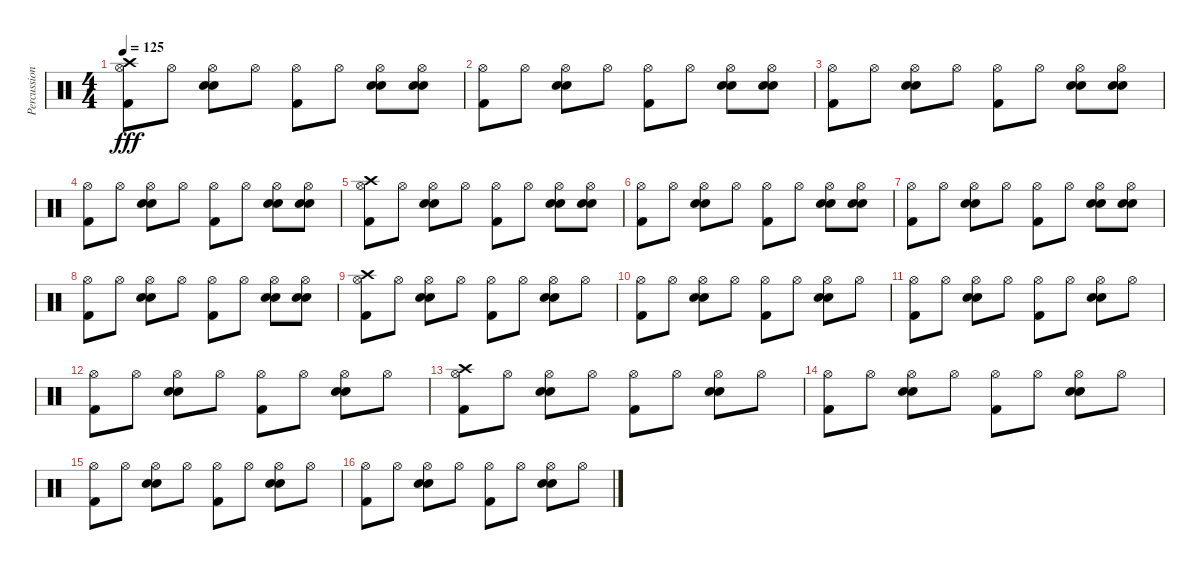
\track ("Percussion" "Percussion") {instrument percussion}
\staff {score}
\articulation defaults
\ts (4 4)
\tempo 125
\clef neutral
\ks c
("Crash high (hit)" "Hi-Hat (open)" "Kick (hit) 2").8{dy fff} "Hi-Hat (open)".8 ("Electric Snare (hit)" "Snare (hit) 2" "Hi-Hat (open)").8 "Hi-Hat (open)".8 ("Hi-Hat (open)" "Kick (hit) 2").8 "Hi-Hat (open)".8 ("Electric Snare (hit)" "Snare (hit) 2" "Hi-Hat (open)").8 ("Electric Snare (hit)" "Snare (hit) 2" "Hi-Hat (open)").8 |
("Hi-Hat (open)" "Kick (hit) 2").8 "Hi-Hat (open)".8 ("Electric Snare (hit)" "Snare (hit) 2" "Hi-Hat (open)").8 "Hi-Hat (open)".8 ("Hi-Hat (open)" "Kick (hit) 2").8 "Hi-Hat (open)".8 ("Electric Snare (hit)" "Snare (hit) 2" "Hi-Hat (open)").8 ("Electric Snare (hit)" "Snare (hit) 2" "Hi-Hat (open)").8 |
("Hi-Hat (open)" "Kick (hit) 2").8 "Hi-Hat (open)".8 ("Electric Snare (hit)" "Snare (hit) 2" "Hi-Hat (open)").8 "Hi-Hat (open)".8 ("Hi-Hat (open)" "Kick (hit) 2").8 "Hi-Hat (open)".8 ("Electric Snare (hit)" "Snare (hit) 2" "Hi-Hat (open)").8 ("Electric Snare (hit)" "Snare (hit) 2" "Hi-Hat (open)").8 |
("Hi-Hat (open)" "Kick (hit) 2").8 "Hi-Hat (open)".8 ("Electric Snare (hit)" "Snare (hit) 2" "Hi-Hat (open)").8 "Hi-Hat (open)".8 ("Hi-Hat (open)" "Kick (hit) 2").8 "Hi-Hat (open)".8 ("Electric Snare (hit)" "Snare (hit) 2" "Hi-Hat (open)").8 ("Electric Snare (hit)" "Snare (hit) 2" "Hi-Hat (open)").8 |
("Crash high (hit)" "Hi-Hat (open)" "Kick (hit) 2").8 "Hi-Hat (open)".8 ("Electric Snare (hit)" "Snare (hit) 2" "Hi-Hat (open)").8 "Hi-Hat (open)".8 ("Hi-Hat (open)" "Kick (hit) 2").8 "Hi-Hat (open)".8 ("Electric Snare (hit)" "Snare (hit) 2" "Hi-Hat (open)").8 ("Electric Snare (hit)" "Snare (hit) 2" "Hi-Hat (open)").8 |
("Hi-Hat (open)" "Kick (hit) 2").8 "Hi-Hat (open)".8 ("Electric Snare (hit)" "Snare (hit) 2" "Hi-Hat (open)").8 "Hi-Hat (open)".8 ("Hi-Hat (open)" "Kick (hit) 2").8 "Hi-Hat (open)".8 ("Electric Snare (hit)" "Snare (hit) 2" "Hi-Hat (open)").8 ("Electric Snare (hit)" "Snare (hit) 2" "Hi-Hat (open)").8 |
("Hi-Hat (open)" "Kick (hit) 2").8 "Hi-Hat (open)".8 ("Electric Snare (hit)" "Snare (hit) 2" "Hi-Hat (open)").8 "Hi-Hat (open)".8 ("Hi-Hat (open)" "Kick (hit) 2").8 "Hi-Hat (open)".8 ("Electric Snare (hit)" "Snare (hit) 2" "Hi-Hat (open)").8 ("Electric Snare (hit)" "Snare (hit) 2" "Hi-Hat (open)").8 |
("Hi-Hat (open)" "Kick (hit) 2").8 "Hi-Hat (open)".8 ("Electric Snare (hit)" "Snare (hit) 2" "Hi-Hat (open)").8 "Hi-Hat (open)".8 ("Hi-Hat (open)" "Kick (hit) 2").8 "Hi-Hat (open)".8 ("Electric Snare (hit)" "Snare (hit) 2" "Hi-Hat (open)").8 ("Electric Snare (hit)" "Snare (hit) 2" "Hi-Hat (open)").8 |
("Crash high (hit)" "Hi-Hat (open)" "Kick (hit) 2").8 "Hi-Hat (open)".8 ("Electric Snare (hit)" "Snare (hit) 2" "Hi-Hat (open)").8 "Hi-Hat (open)".8 ("Hi-Hat (open)" "Kick (hit) 2").8 "Hi-Hat (open)".8 ("Electric Snare (hit)" "Snare (hit) 2" "Hi-Hat (open)").8 "Hi-Hat (open)".8 |
("Hi-Hat (open)" "Kick (hit) 2").8 "Hi-Hat (open)".8 ("Electric Snare (hit)" "Snare (hit) 2" "Hi-Hat (open)").8 "Hi-Hat (open)".8 ("Hi-Hat (open)" "Kick (hit) 2").8 "Hi-Hat (open)".8 ("Electric Snare (hit)" "Snare (hit) 2" "Hi-Hat (open)").8 "Hi-Hat (open)".8 |
("Hi-Hat (open)" "Kick (hit) 2").8 "Hi-Hat (open)".8 ("Electric Snare (hit)" "Snare (hit) 2" "Hi-Hat (open)").8 "Hi-Hat (open)".8 ("Hi-Hat (open)" "Kick (hit) 2").8 "Hi-Hat (open)".8 ("Electric Snare (hit)" "Snare (hit) 2" "Hi-Hat (open)").8 "Hi-Hat (open)".8 |
("Hi-Hat (open)" "Kick (hit) 2").8 "Hi-Hat (open)".8 ("Electric Snare (hit)" "Snare (hit) 2" "Hi-Hat (open)").8 "Hi-Hat (open)".8 ("Hi-Hat (open)" "Kick (hit) 2").8 "Hi-Hat (open)".8 ("Electric Snare (hit)" "Snare (hit) 2" "Hi-Hat (open)").8 "Hi-Hat (open)".8 |
("Crash high (hit)" "Hi-Hat (open)" "Kick (hit) 2").8 "Hi-Hat (open)".8 ("Electric Snare (hit)" "Snare (hit) 2" "Hi-Hat (open)").8 "Hi-Hat (open)".8 ("Hi-Hat (open)" "Kick (hit) 2").8 "Hi-Hat (open)".8 ("Electric Snare (hit)" "Snare (hit) 2" "Hi-Hat (open)").8 "Hi-Hat (open)".8 |
("Hi-Hat (open)" "Kick (hit) 2").8 "Hi-Hat (open)".8 ("Electric Snare (hit)" "Snare (hit) 2" "Hi-Hat (open)").8 "Hi-Hat (open)".8 ("Hi-Hat (open)" "Kick (hit) 2").8 "Hi-Hat (open)".8 ("Electric Snare (hit)" "Snare (hit) 2" "Hi-Hat (open)").8 "Hi-Hat (open)".8 |
("Hi-Hat (open)" "Kick (hit) 2").8 "Hi-Hat (open)".8 ("Electric Snare (hit)" "Snare (hit) 2" "Hi-Hat (open)").8 "Hi-Hat (open)".8 ("Hi-Hat (open)" "Kick (hit) 2").8 "Hi-Hat (open)".8 ("Electric Snare (hit)" "Snare (hit) 2" "Hi-Hat (open)").8 "Hi-Hat (open)".8 |
("Hi-Hat (open)" "Kick (hit) 2").8 "Hi-Hat (open)".8 ("Electric Snare (hit)" "Snare (hit) 2" "Hi-Hat (open)").8 "Hi-Hat (open)".8 ("Hi-Hat (open)" "Kick (hit) 2").8 "Hi-Hat (open)".8 ("Electric Snare (hit)" "Snare (hit) 2" "Hi-Hat (open)").8 "Hi-Hat (open)".8
